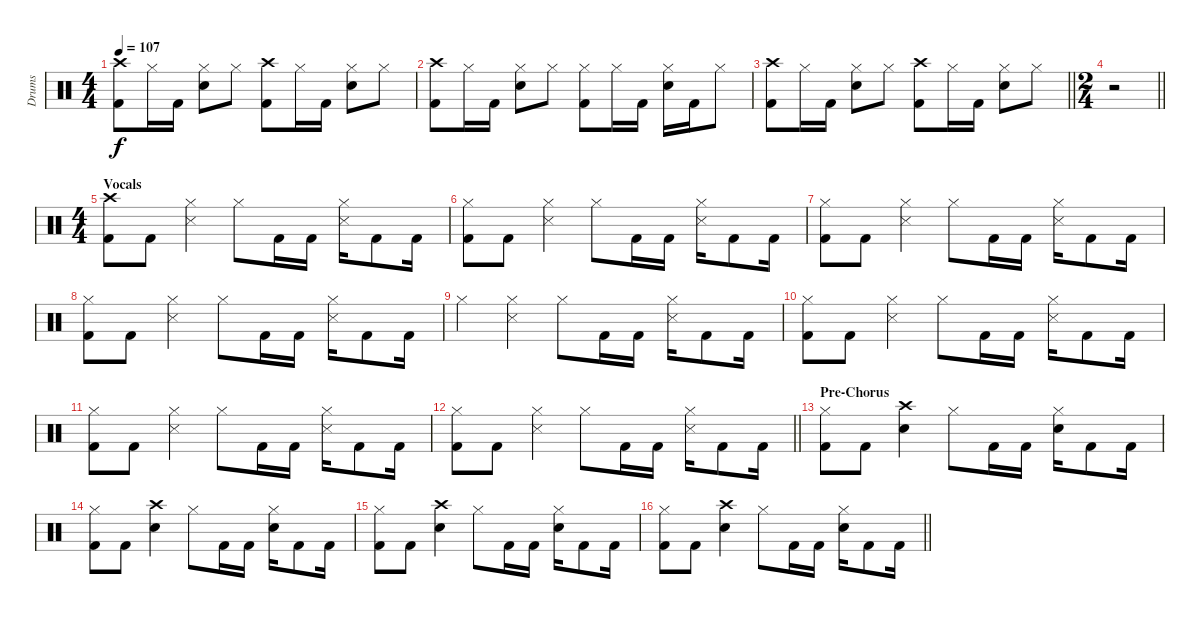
\track ("Drums " "Drums ") {instrument percussion}
\staff {score}
\articulation defaults
\ts (4 4)
\tempo 107
\clef neutral
\ks c
("Crash high (hit)" "Kick (hit) 2").8{dy f} "Hi-Hat (closed)".16 "Kick (hit) 2".16 ("Hi-Hat (closed)" "Electric Snare (hit)").8 "Hi-Hat (closed)".8 ("Crash high (hit)" "Kick (hit) 2").8 "Hi-Hat (closed)".16 "Kick (hit) 2".16 ("Hi-Hat (closed)" "Electric Snare (hit)").8 "Hi-Hat (closed)".8 |
("Crash high (hit)" "Kick (hit) 2").8 "Hi-Hat (closed)".16 "Kick (hit) 2".16 ("Hi-Hat (closed)" "Electric Snare (hit)").8 "Hi-Hat (closed)".8 ("Hi-Hat (closed)" "Kick (hit) 2").8 "Hi-Hat (closed)".16 "Kick (hit) 2".16 ("Hi-Hat (closed)" "Electric Snare (hit)").16 "Kick (hit) 2".16 "Hi-Hat (closed)".8 |
\barLineRight lightlight
("Crash high (hit)" "Kick (hit) 2").8 "Hi-Hat (closed)".16 "Kick (hit) 2".16 ("Hi-Hat (closed)" "Electric Snare (hit)").8 "Hi-Hat (closed)".8 ("Crash high (hit)" "Kick (hit) 2").8 "Hi-Hat (closed)".16 "Kick (hit) 2".16 ("Hi-Hat (closed)" "Electric Snare (hit)").8 "Hi-Hat (closed)".8 |
\ts (2 4)
\barLineRight lightlight
r.2 |
\ts (4 4)
\section ("" "Vocals")
("Crash high (hit)" "Kick (hit) 2").8 "Kick (hit) 2".8 ("Hi-Hat (closed)" "Snare (side stick) 3").4 "Hi-Hat (closed)".8 "Kick (hit) 2".16 "Kick (hit) 2".16 ("Hi-Hat (closed)" "Snare (side stick) 3").16 "Kick (hit) 2".8 "Kick (hit) 2".16 |
("Hi-Hat (closed)" "Kick (hit) 2").8 "Kick (hit) 2".8 ("Hi-Hat (closed)" "Snare (side stick) 3").4 "Hi-Hat (closed)".8 "Kick (hit) 2".16 "Kick (hit) 2".16 ("Hi-Hat (closed)" "Snare (side stick) 3").16 "Kick (hit) 2".8 "Kick (hit) 2".16 |
("Hi-Hat (closed)" "Kick (hit) 2").8 "Kick (hit) 2".8 ("Hi-Hat (closed)" "Snare (side stick) 3").4 "Hi-Hat (closed)".8 "Kick (hit) 2".16 "Kick (hit) 2".16 ("Hi-Hat (closed)" "Snare (side stick) 3").16 "Kick (hit) 2".8 "Kick (hit) 2".16 |
("Hi-Hat (closed)" "Kick (hit) 2").8 "Kick (hit) 2".8 ("Hi-Hat (closed)" "Snare (side stick) 3").4 "Hi-Hat (closed)".8 "Kick (hit) 2".16 "Kick (hit) 2".16 ("Hi-Hat (closed)" "Snare (side stick) 3").16 "Kick (hit) 2".8 "Kick (hit) 2".16 |
"Hi-Hat (closed)".4 ("Hi-Hat (closed)" "Snare (side stick) 3").4 "Hi-Hat (closed)".8 "Kick (hit) 2".16 "Kick (hit) 2".16 ("Hi-Hat (closed)" "Snare (side stick) 3").16 "Kick (hit) 2".8 "Kick (hit) 2".16 |
("Hi-Hat (closed)" "Kick (hit) 2").8 "Kick (hit) 2".8 ("Hi-Hat (closed)" "Snare (side stick) 3").4 "Hi-Hat (closed)".8 "Kick (hit) 2".16 "Kick (hit) 2".16 ("Hi-Hat (closed)" "Snare (side stick) 3").16 "Kick (hit) 2".8 "Kick (hit) 2".16 |
("Hi-Hat (closed)" "Kick (hit) 2").8 "Kick (hit) 2".8 ("Hi-Hat (closed)" "Snare (side stick) 3").4 "Hi-Hat (closed)".8 "Kick (hit) 2".16 "Kick (hit) 2".16 ("Hi-Hat (closed)" "Snare (side stick) 3").16 "Kick (hit) 2".8 "Kick (hit) 2".16 |
\barLineRight lightlight
("Hi-Hat (closed)" "Kick (hit) 2").8 "Kick (hit) 2".8 ("Hi-Hat (closed)" "Snare (side stick) 3").4 "Hi-Hat (closed)".8 "Kick (hit) 2".16 "Kick (hit) 2".16 ("Hi-Hat (closed)" "Snare (side stick) 3").16 "Kick (hit) 2".8 "Kick (hit) 2".16 |
\section ("" "Pre-Chorus")
("Hi-Hat (closed)" "Kick (hit) 2").8 "Kick (hit) 2".8 ("Crash high (hit)" "Electric Snare (hit)").4 "Hi-Hat (closed)".8 "Kick (hit) 2".16 "Kick (hit) 2".16 ("Hi-Hat (closed)" "Electric Snare (hit)").16 "Kick (hit) 2".8 "Kick (hit) 2".16 |
("Hi-Hat (closed)" "Kick (hit) 2").8 "Kick (hit) 2".8 ("Crash high (hit)" "Electric Snare (hit)").4 "Hi-Hat (closed)".8 "Kick (hit) 2".16 "Kick (hit) 2".16 ("Hi-Hat (closed)" "Electric Snare (hit)").16 "Kick (hit) 2".8 "Kick (hit) 2".16 |
("Hi-Hat (closed)" "Kick (hit) 2").8 "Kick (hit) 2".8 ("Crash high (hit)" "Electric Snare (hit)").4 "Hi-Hat (closed)".8 "Kick (hit) 2".16 "Kick (hit) 2".16 ("Hi-Hat (closed)" "Electric Snare (hit)").16 "Kick (hit) 2".8 "Kick (hit) 2".16 |
\barLineRight lightlight
("Hi-Hat (closed)" "Kick (hit) 2").8 "Kick (hit) 2".8 ("Crash high (hit)" "Electric Snare (hit)").4 "Hi-Hat (closed)".8 "Kick (hit) 2".16 "Kick (hit) 2".16 ("Hi-Hat (closed)" "Electric Snare (hit)").16 "Kick (hit) 2".8 "Kick (hit) 2".16
